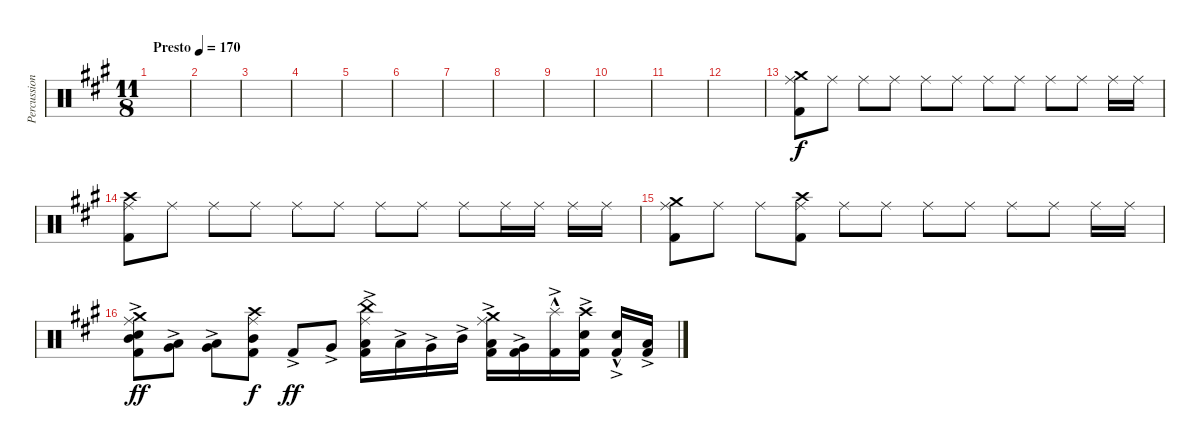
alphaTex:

\track ("Percussion" "Percussion") {instrument percussion}
\staff {score}
\articulation defaults
\ts (11 8)
\tempo (170 "Presto")
\clef neutral
\ks f#minor
|
|
|
|
|
|
|
|
|
|
|
|
("Crash medium (hit)" "Ride (middle)" "Kick (hit) 2").8 "Ride (middle)".8 "Ride (middle)".8 "Ride (middle)".8 "Ride (middle)".8 "Ride (middle)".8 "Ride (middle)".8 "Ride (middle)".8 "Ride (middle)".8 "Ride (middle)".8 "Ride (middle)".16 "Ride (middle)".16 |
("Crash high (hit)" "Ride (middle)" "Kick (hit) 2").8 "Ride (middle)".8 "Ride (middle)".8 "Ride (middle)".8 "Ride (middle)".8 "Ride (middle)".8 "Ride (middle)".8 "Ride (middle)".8 "Ride (middle)".8 "Ride (middle)".16 "Ride (middle)".16 "Ride (middle)".16 "Ride (middle)".16 |
("Crash medium (hit)" "Ride (middle)" "Kick (hit) 2").8 "Ride (middle)".8 "Ride (middle)".8 ("Ride (middle)" "Crash high (hit)" "Kick (hit) 2").8 "Ride (middle)".8 "Ride (middle)".8 "Ride (middle)".8 "Ride (middle)".8 "Ride (middle)".8 "Ride (middle)".8 "Ride (middle)".16 "Ride (middle)".16 |
("Crash medium (hit)" "Ride (middle)"{ac} "Electric Snare (hit)"{ac} "Mid Tom (hit)"{ac} "Kick (hit) 2"{ac}).8{dy ff} ("Low Tom (hit)"{ac} "Very Low Tom (hit)"{ac}).8 ("Very Low Tom (hit)"{ac} "Low Floor Tom (hit)"{ac}).8 ("Crash high (hit)" "Ride (middle)" "Mid Tom (hit)" "Kick (hit) 2").8{dy f} "Kick (hit) 2"{ac}.8{dy ff} "Very Low Tom (hit)"{ac}.8 ("China (hit)"{ac} "Ride (middle)" "Low Floor Tom (hit)"{ac} "Kick (hit) 2"{ac}).16 "Low Floor Tom (hit)"{ac}.16 "Very Low Tom (hit)"{ac}.16 "Mid Tom (hit)"{ac}.16 ("Crash medium (hit)" "Ride (middle)" "Low Tom (hit)"{ac} "Kick (hit) 2"{ac}).16 ("Very Low Tom (hit)"{ac} "Kick (hit) 2"{ac}).16 ("Splash (hit)"{hac} "Kick (hit) 2"{ac}).16 ("Electric Snare (hit)"{ac} "Crash high (hit)" "Kick (hit) 2"{ac}).16 ("Metronome (bell)"{hac} "Kick (hit) 2"{ac}).16 ("Low Floor Tom (hit)"{ac} "Kick (hit) 2"{ac}).16
